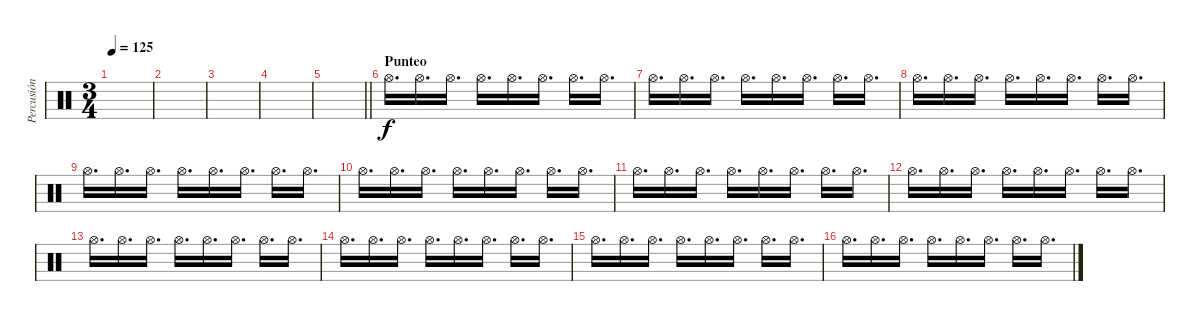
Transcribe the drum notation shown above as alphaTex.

\track ("Percusión" "Percusión") {instrument percussion}
\staff {score}
\articulation defaults
\ts (3 4)
\tempo 125
\clef neutral
\ks c
|
|
|
|
\barLineRight lightlight
|
\section ("" "Punteo")
"Hi-Hat (open)".16{d volume 7} "Hi-Hat (open)".16{d} "Hi-Hat (open)".16{d} "Hi-Hat (open)".16{d} "Hi-Hat (open)".16{d} "Hi-Hat (open)".16{d} "Hi-Hat (open)".16{d} "Hi-Hat (open)".16{d} |
"Hi-Hat (open)".16{d} "Hi-Hat (open)".16{d} "Hi-Hat (open)".16{d} "Hi-Hat (open)".16{d} "Hi-Hat (open)".16{d} "Hi-Hat (open)".16{d} "Hi-Hat (open)".16{d} "Hi-Hat (open)".16{d} |
"Hi-Hat (open)".16{d} "Hi-Hat (open)".16{d} "Hi-Hat (open)".16{d} "Hi-Hat (open)".16{d} "Hi-Hat (open)".16{d} "Hi-Hat (open)".16{d} "Hi-Hat (open)".16{d} "Hi-Hat (open)".16{d} |
"Hi-Hat (open)".16{d} "Hi-Hat (open)".16{d} "Hi-Hat (open)".16{d} "Hi-Hat (open)".16{d} "Hi-Hat (open)".16{d} "Hi-Hat (open)".16{d} "Hi-Hat (open)".16{d} "Hi-Hat (open)".16{d} |
"Hi-Hat (open)".16{d} "Hi-Hat (open)".16{d} "Hi-Hat (open)".16{d} "Hi-Hat (open)".16{d} "Hi-Hat (open)".16{d} "Hi-Hat (open)".16{d} "Hi-Hat (open)".16{d} "Hi-Hat (open)".16{d} |
"Hi-Hat (open)".16{d} "Hi-Hat (open)".16{d} "Hi-Hat (open)".16{d} "Hi-Hat (open)".16{d} "Hi-Hat (open)".16{d} "Hi-Hat (open)".16{d} "Hi-Hat (open)".16{d} "Hi-Hat (open)".16{d} |
"Hi-Hat (open)".16{d} "Hi-Hat (open)".16{d} "Hi-Hat (open)".16{d} "Hi-Hat (open)".16{d} "Hi-Hat (open)".16{d} "Hi-Hat (open)".16{d} "Hi-Hat (open)".16{d} "Hi-Hat (open)".16{d} |
"Hi-Hat (open)".16{d} "Hi-Hat (open)".16{d} "Hi-Hat (open)".16{d} "Hi-Hat (open)".16{d} "Hi-Hat (open)".16{d} "Hi-Hat (open)".16{d} "Hi-Hat (open)".16{d} "Hi-Hat (open)".16{d} |
"Hi-Hat (open)".16{d} "Hi-Hat (open)".16{d} "Hi-Hat (open)".16{d} "Hi-Hat (open)".16{d} "Hi-Hat (open)".16{d} "Hi-Hat (open)".16{d} "Hi-Hat (open)".16{d} "Hi-Hat (open)".16{d} |
"Hi-Hat (open)".16{d} "Hi-Hat (open)".16{d} "Hi-Hat (open)".16{d} "Hi-Hat (open)".16{d} "Hi-Hat (open)".16{d} "Hi-Hat (open)".16{d} "Hi-Hat (open)".16{d} "Hi-Hat (open)".16{d} |
"Hi-Hat (open)".16{d} "Hi-Hat (open)".16{d} "Hi-Hat (open)".16{d} "Hi-Hat (open)".16{d} "Hi-Hat (open)".16{d} "Hi-Hat (open)".16{d} "Hi-Hat (open)".16{d} "Hi-Hat (open)".16{d}
